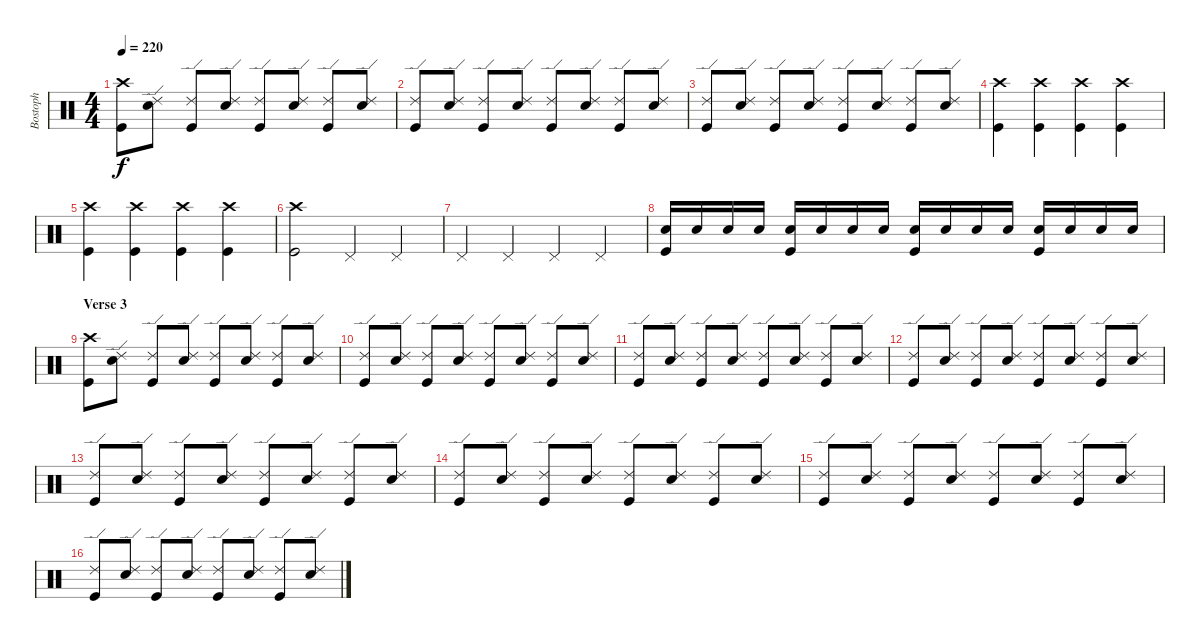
\track ("Bostoph" "Bostoph") {instrument percussion}
\staff {score}
\articulation defaults
\ts (4 4)
\tempo 220
\clef neutral
\ks c
("Crash high (hit)" "Kick (hit)").8{dy f} ("Ride (edge) 2" "Snare (hit) 2").8 ("Ride (edge) 2" "Kick (hit)").8 ("Ride (edge) 2" "Snare (hit) 2").8 ("Ride (edge) 2" "Kick (hit)").8 ("Ride (edge) 2" "Snare (hit) 2").8 ("Ride (edge) 2" "Kick (hit)").8 ("Ride (edge) 2" "Snare (hit) 2").8 |
("Ride (edge) 2" "Kick (hit)").8 ("Ride (edge) 2" "Snare (hit) 2").8 ("Ride (edge) 2" "Kick (hit)").8 ("Ride (edge) 2" "Snare (hit) 2").8 ("Ride (edge) 2" "Kick (hit)").8 ("Ride (edge) 2" "Snare (hit) 2").8 ("Ride (edge) 2" "Kick (hit)").8 ("Ride (edge) 2" "Snare (hit) 2").8 |
("Ride (edge) 2" "Kick (hit)").8 ("Ride (edge) 2" "Snare (hit) 2").8 ("Ride (edge) 2" "Kick (hit)").8 ("Ride (edge) 2" "Snare (hit) 2").8 ("Ride (edge) 2" "Kick (hit)").8 ("Ride (edge) 2" "Snare (hit) 2").8 ("Ride (edge) 2" "Kick (hit)").8 ("Ride (edge) 2" "Snare (hit) 2").8 |
("Crash high (hit)" "Kick (hit)").4 ("Crash high (hit)" "Kick (hit)").4 ("Crash high (hit)" "Kick (hit)").4 ("Crash high (hit)" "Kick (hit)").4 |
("Crash high (hit)" "Kick (hit)").4 ("Crash high (hit)" "Kick (hit)").4 ("Crash high (hit)" "Kick (hit)").4 ("Crash high (hit)" "Kick (hit)").4 |
("Crash high (hit)" "Kick (hit)").2 "Pedal Hi-Hat (hit)".4 "Pedal Hi-Hat (hit)".4 |
"Pedal Hi-Hat (hit)".4 "Pedal Hi-Hat (hit)".4 "Pedal Hi-Hat (hit)".4 "Pedal Hi-Hat (hit)".4 |
("Snare (hit) 2" "Kick (hit)").16 "Snare (hit) 2".16 "Snare (hit) 2".16 "Snare (hit) 2".16 ("Snare (hit) 2" "Kick (hit)").16 "Snare (hit) 2".16 "Snare (hit) 2".16 "Snare (hit) 2".16 ("Snare (hit) 2" "Kick (hit)").16 "Snare (hit) 2".16 "Snare (hit) 2".16 "Snare (hit) 2".16 ("Snare (hit) 2" "Kick (hit)").16 "Snare (hit) 2".16 "Snare (hit) 2".16 "Snare (hit) 2".16 |
\section ("" "Verse 3")
("Crash high (hit)" "Kick (hit)").8 ("Ride (edge) 2" "Snare (hit) 2").8 ("Ride (edge) 2" "Kick (hit)").8 ("Ride (edge) 2" "Snare (hit) 2").8 ("Ride (edge) 2" "Kick (hit)").8 ("Ride (edge) 2" "Snare (hit) 2").8 ("Ride (edge) 2" "Kick (hit)").8 ("Ride (edge) 2" "Snare (hit) 2").8 |
("Ride (edge) 2" "Kick (hit)").8 ("Ride (edge) 2" "Snare (hit) 2").8 ("Ride (edge) 2" "Kick (hit)").8 ("Ride (edge) 2" "Snare (hit) 2").8 ("Ride (edge) 2" "Kick (hit)").8 ("Ride (edge) 2" "Snare (hit) 2").8 ("Ride (edge) 2" "Kick (hit)").8 ("Ride (edge) 2" "Snare (hit) 2").8 |
("Ride (edge) 2" "Kick (hit)").8 ("Ride (edge) 2" "Snare (hit) 2").8 ("Ride (edge) 2" "Kick (hit)").8 ("Ride (edge) 2" "Snare (hit) 2").8 ("Ride (edge) 2" "Kick (hit)").8 ("Ride (edge) 2" "Snare (hit) 2").8 ("Ride (edge) 2" "Kick (hit)").8 ("Ride (edge) 2" "Snare (hit) 2").8 |
("Ride (edge) 2" "Kick (hit)").8 ("Ride (edge) 2" "Snare (hit) 2").8 ("Ride (edge) 2" "Kick (hit)").8 ("Ride (edge) 2" "Snare (hit) 2").8 ("Ride (edge) 2" "Kick (hit)").8 ("Ride (edge) 2" "Snare (hit) 2").8 ("Ride (edge) 2" "Kick (hit)").8 ("Ride (edge) 2" "Snare (hit) 2").8 |
("Ride (edge) 2" "Kick (hit)").8 ("Ride (edge) 2" "Snare (hit) 2").8 ("Ride (edge) 2" "Kick (hit)").8 ("Ride (edge) 2" "Snare (hit) 2").8 ("Ride (edge) 2" "Kick (hit)").8 ("Ride (edge) 2" "Snare (hit) 2").8 ("Ride (edge) 2" "Kick (hit)").8 ("Ride (edge) 2" "Snare (hit) 2").8 |
("Ride (edge) 2" "Kick (hit)").8 ("Ride (edge) 2" "Snare (hit) 2").8 ("Ride (edge) 2" "Kick (hit)").8 ("Ride (edge) 2" "Snare (hit) 2").8 ("Ride (edge) 2" "Kick (hit)").8 ("Ride (edge) 2" "Snare (hit) 2").8 ("Ride (edge) 2" "Kick (hit)").8 ("Ride (edge) 2" "Snare (hit) 2").8 |
("Ride (edge) 2" "Kick (hit)").8 ("Ride (edge) 2" "Snare (hit) 2").8 ("Ride (edge) 2" "Kick (hit)").8 ("Ride (edge) 2" "Snare (hit) 2").8 ("Ride (edge) 2" "Kick (hit)").8 ("Ride (edge) 2" "Snare (hit) 2").8 ("Ride (edge) 2" "Kick (hit)").8 ("Ride (edge) 2" "Snare (hit) 2").8 |
("Ride (edge) 2" "Kick (hit)").8 ("Ride (edge) 2" "Snare (hit) 2").8 ("Ride (edge) 2" "Kick (hit)").8 ("Ride (edge) 2" "Snare (hit) 2").8 ("Ride (edge) 2" "Kick (hit)").8 ("Ride (edge) 2" "Snare (hit) 2").8 ("Ride (edge) 2" "Kick (hit)").8 ("Ride (edge) 2" "Snare (hit) 2").8
